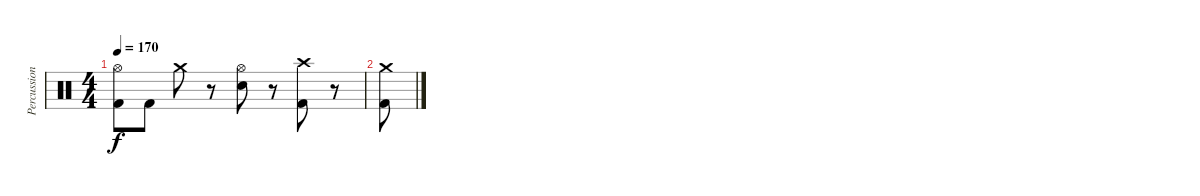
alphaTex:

\track ("Percussion" "Percussion") {instrument percussion}
\staff {score}
\articulation defaults
\ts (4 4)
\tempo 170
\clef neutral
\ks c
("Hi-Hat (open)" "Kick (hit) 2").8{dy f} "Kick (hit) 2".8 "Crash medium (hit)".8 r.8 ("Hi-Hat (open)" "Electric Snare (hit)").8 r.8 ("Crash high (hit)" "Kick (hit) 2").8 r.8 |
("Crash medium (hit)" "Kick (hit) 2").8
